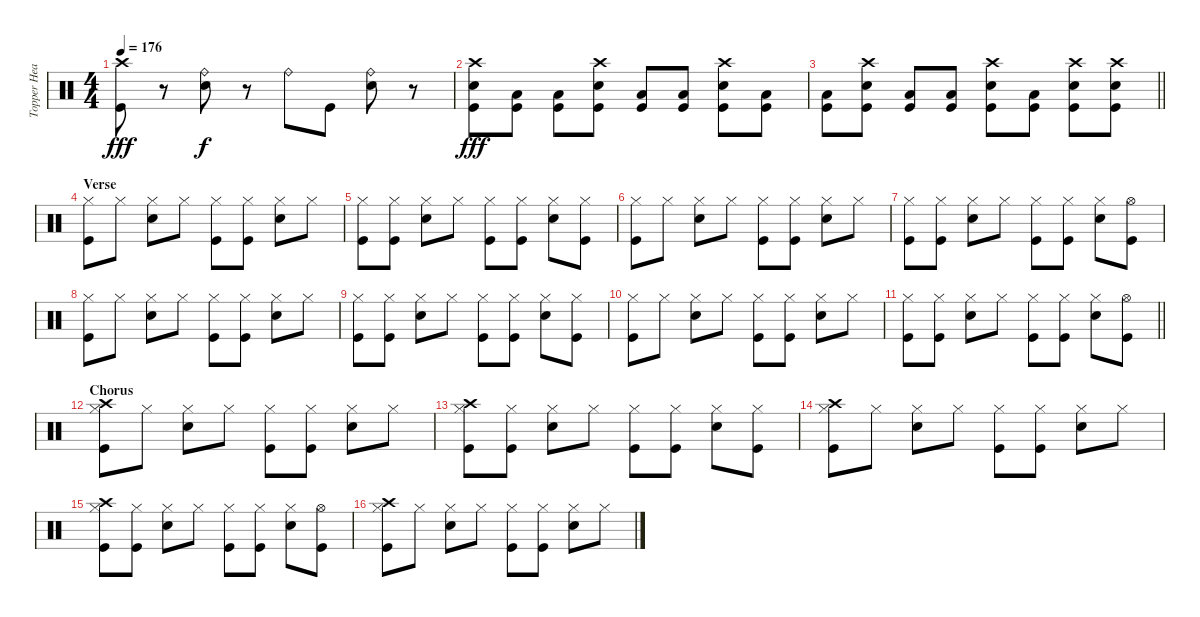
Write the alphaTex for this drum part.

\track ("Topper Headon - Drums" "Topper Hea") {instrument percussion}
\staff {score}
\articulation defaults
\ts (4 4)
\tempo 176
\clef neutral
\ks c
("Crash high (hit)" "Kick (hit)").8{dy fff} r.8 ("Ride (bell)" "Snare (hit) 2").8{dy f} r.8 "Ride (bell)".8 "Kick (hit)".8 ("Ride (bell)" "Snare (hit) 2").8 r.8 |
("Crash high (hit)" "Snare (hit) 2" "Kick (hit)").8{dy fff} ("Low Floor Tom (hit)" "Kick (hit)").8 ("Low Floor Tom (hit)" "Kick (hit)").8 ("Crash high (hit)" "Snare (hit) 2" "Kick (hit)").8 ("Low Floor Tom (hit)" "Kick (hit)").8 ("Low Floor Tom (hit)" "Kick (hit)").8 ("Crash high (hit)" "Snare (hit) 2" "Kick (hit)").8 ("Low Floor Tom (hit)" "Kick (hit)").8 |
\barLineRight lightlight
("Low Floor Tom (hit)" "Kick (hit)").8 ("Crash high (hit)" "Snare (hit) 2" "Kick (hit)").8 ("Low Floor Tom (hit)" "Kick (hit)").8 ("Low Floor Tom (hit)" "Kick (hit)").8 ("Crash high (hit)" "Snare (hit) 2" "Kick (hit)").8 ("Low Floor Tom (hit)" "Kick (hit)").8 ("Crash high (hit)" "Snare (hit) 2" "Kick (hit)").8 ("Crash high (hit)" "Snare (hit) 2" "Kick (hit)").8 |
\section ("" "Verse")
("Hi-Hat (closed)" "Kick (hit)").8 "Hi-Hat (closed)".8 ("Hi-Hat (closed)" "Snare (hit) 2").8 "Hi-Hat (closed)".8 ("Hi-Hat (closed)" "Kick (hit)").8 ("Hi-Hat (closed)" "Kick (hit)").8 ("Hi-Hat (closed)" "Snare (hit) 2").8 "Hi-Hat (closed)".8 |
("Kick (hit)" "Hi-Hat (closed)").8 ("Kick (hit)" "Hi-Hat (closed)").8 ("Hi-Hat (closed)" "Snare (hit) 2").8 "Hi-Hat (closed)".8 ("Kick (hit)" "Hi-Hat (closed)").8 ("Kick (hit)" "Hi-Hat (closed)").8 ("Hi-Hat (closed)" "Snare (hit) 2").8 ("Hi-Hat (closed)" "Kick (hit)").8 |
("Hi-Hat (closed)" "Kick (hit)").8 "Hi-Hat (closed)".8 ("Hi-Hat (closed)" "Snare (hit) 2").8 "Hi-Hat (closed)".8 ("Hi-Hat (closed)" "Kick (hit)").8 ("Hi-Hat (closed)" "Kick (hit)").8 ("Hi-Hat (closed)" "Snare (hit) 2").8 "Hi-Hat (closed)".8 |
("Kick (hit)" "Hi-Hat (closed)").8 ("Kick (hit)" "Hi-Hat (closed)").8 ("Hi-Hat (closed)" "Snare (hit) 2").8 "Hi-Hat (closed)".8 ("Kick (hit)" "Hi-Hat (closed)").8 ("Kick (hit)" "Hi-Hat (closed)").8 ("Hi-Hat (closed)" "Snare (hit) 2").8 ("Kick (hit)" "Hi-Hat (open)").8 |
("Hi-Hat (closed)" "Kick (hit)").8 "Hi-Hat (closed)".8 ("Hi-Hat (closed)" "Snare (hit) 2").8 "Hi-Hat (closed)".8 ("Hi-Hat (closed)" "Kick (hit)").8 ("Hi-Hat (closed)" "Kick (hit)").8 ("Hi-Hat (closed)" "Snare (hit) 2").8 "Hi-Hat (closed)".8 |
("Kick (hit)" "Hi-Hat (closed)").8 ("Kick (hit)" "Hi-Hat (closed)").8 ("Hi-Hat (closed)" "Snare (hit) 2").8 "Hi-Hat (closed)".8 ("Kick (hit)" "Hi-Hat (closed)").8 ("Kick (hit)" "Hi-Hat (closed)").8 ("Hi-Hat (closed)" "Snare (hit) 2").8 ("Hi-Hat (closed)" "Kick (hit)").8 |
("Hi-Hat (closed)" "Kick (hit)").8 "Hi-Hat (closed)".8 ("Hi-Hat (closed)" "Snare (hit) 2").8 "Hi-Hat (closed)".8 ("Hi-Hat (closed)" "Kick (hit)").8 ("Hi-Hat (closed)" "Kick (hit)").8 ("Hi-Hat (closed)" "Snare (hit) 2").8 "Hi-Hat (closed)".8 |
\barLineRight lightlight
("Kick (hit)" "Hi-Hat (closed)").8 ("Kick (hit)" "Hi-Hat (closed)").8 ("Hi-Hat (closed)" "Snare (hit) 2").8 "Hi-Hat (closed)".8 ("Kick (hit)" "Hi-Hat (closed)").8 ("Kick (hit)" "Hi-Hat (closed)").8 ("Hi-Hat (closed)" "Snare (hit) 2").8 ("Kick (hit)" "Hi-Hat (open)").8 |
\section ("" "Chorus")
("Hi-Hat (closed)" "Kick (hit)" "Crash high (hit)").8 "Hi-Hat (closed)".8 ("Hi-Hat (closed)" "Snare (hit) 2").8 "Hi-Hat (closed)".8 ("Hi-Hat (closed)" "Kick (hit)").8 ("Hi-Hat (closed)" "Kick (hit)").8 ("Hi-Hat (closed)" "Snare (hit) 2").8 "Hi-Hat (closed)".8 |
("Kick (hit)" "Hi-Hat (closed)" "Crash high (hit)").8 ("Kick (hit)" "Hi-Hat (closed)").8 ("Hi-Hat (closed)" "Snare (hit) 2").8 "Hi-Hat (closed)".8 ("Kick (hit)" "Hi-Hat (closed)").8 ("Kick (hit)" "Hi-Hat (closed)").8 ("Hi-Hat (closed)" "Snare (hit) 2").8 ("Hi-Hat (closed)" "Kick (hit)").8 |
("Hi-Hat (closed)" "Kick (hit)" "Crash high (hit)").8 "Hi-Hat (closed)".8 ("Hi-Hat (closed)" "Snare (hit) 2").8 "Hi-Hat (closed)".8 ("Hi-Hat (closed)" "Kick (hit)").8 ("Hi-Hat (closed)" "Kick (hit)").8 ("Hi-Hat (closed)" "Snare (hit) 2").8 "Hi-Hat (closed)".8 |
("Kick (hit)" "Hi-Hat (closed)" "Crash high (hit)").8 ("Kick (hit)" "Hi-Hat (closed)").8 ("Hi-Hat (closed)" "Snare (hit) 2").8 "Hi-Hat (closed)".8 ("Kick (hit)" "Hi-Hat (closed)").8 ("Kick (hit)" "Hi-Hat (closed)").8 ("Hi-Hat (closed)" "Snare (hit) 2").8 ("Kick (hit)" "Hi-Hat (open)").8 |
("Hi-Hat (closed)" "Kick (hit)" "Crash high (hit)").8 "Hi-Hat (closed)".8 ("Hi-Hat (closed)" "Snare (hit) 2").8 "Hi-Hat (closed)".8 ("Hi-Hat (closed)" "Kick (hit)").8 ("Hi-Hat (closed)" "Kick (hit)").8 ("Hi-Hat (closed)" "Snare (hit) 2").8 "Hi-Hat (closed)".8
